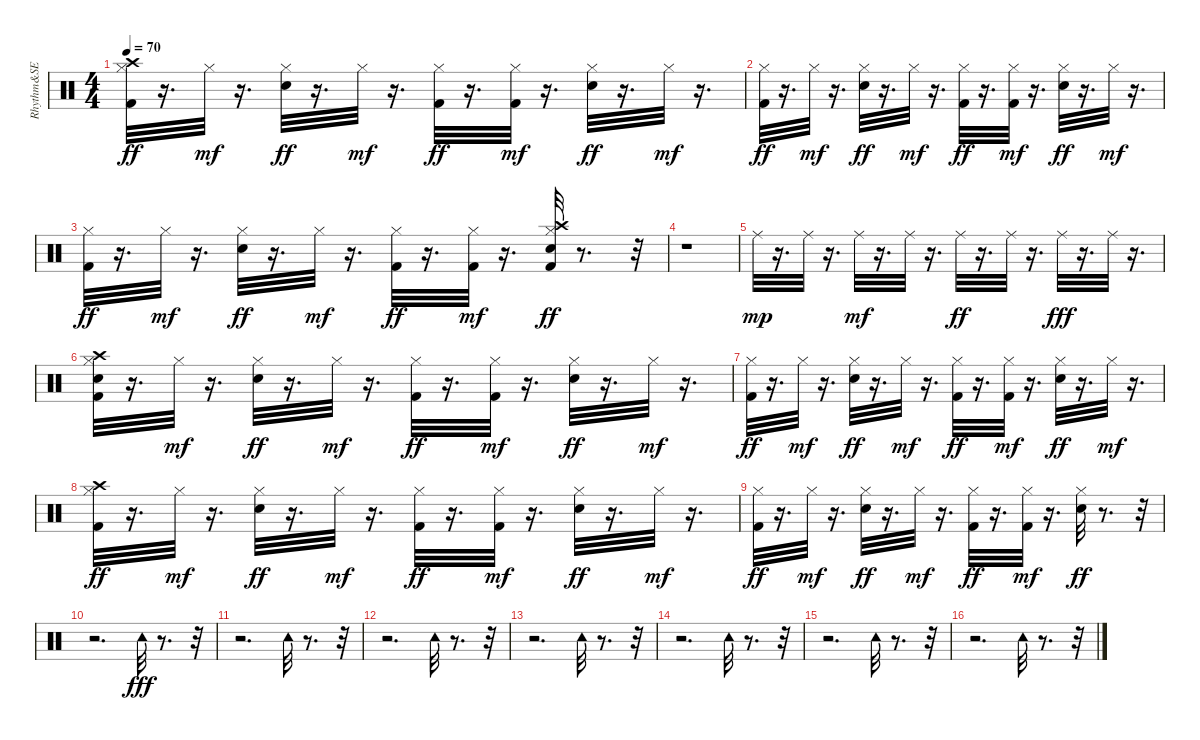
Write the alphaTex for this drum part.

\track ("Rhythm&SE" "Rhythm&SE") {instrument percussion}
\staff {score}
\articulation defaults
\ts (4 4)
\tempo 70
\clef neutral
\ks c
("Kick (hit) 2" "Hi-Hat (closed)" "Crash high (hit)").32{dy ff volume 13} r.16{d} "Hi-Hat (closed)".32{dy mf volume 13} r.16{d} ("Snare (hit) 2" "Hi-Hat (closed)").32{dy ff} r.16{d} "Hi-Hat (closed)".32{dy mf} r.16{d} ("Kick (hit) 2" "Hi-Hat (closed)").32{dy ff} r.16{d} ("Kick (hit) 2" "Hi-Hat (closed)").32{dy mf} r.16{d} ("Snare (hit) 2" "Hi-Hat (closed)").32{dy ff} r.16{d} "Hi-Hat (closed)".32{dy mf} r.16{d} |
("Kick (hit) 2" "Hi-Hat (closed)").32{dy ff} r.16{d} "Hi-Hat (closed)".32{dy mf} r.16{d} ("Snare (hit) 2" "Hi-Hat (closed)").32{dy ff} r.16{d} "Hi-Hat (closed)".32{dy mf} r.16{d} ("Kick (hit) 2" "Hi-Hat (closed)").32{dy ff} r.16{d} ("Kick (hit) 2" "Hi-Hat (closed)").32{dy mf} r.16{d} ("Snare (hit) 2" "Hi-Hat (closed)").32{dy ff} r.16{d} "Hi-Hat (closed)".32{dy mf} r.16{d} |
("Kick (hit) 2" "Hi-Hat (closed)").32{dy ff} r.16{d} "Hi-Hat (closed)".32{dy mf} r.16{d} ("Snare (hit) 2" "Hi-Hat (closed)").32{dy ff} r.16{d} "Hi-Hat (closed)".32{dy mf} r.16{d} ("Kick (hit) 2" "Hi-Hat (closed)").32{dy ff} r.16{d} ("Kick (hit) 2" "Hi-Hat (closed)").32{dy mf} r.16{d} ("Snare (hit) 2" "Hi-Hat (closed)" "Kick (hit) 2" "Crash high (hit)").32{dy ff} r.8{d} r.32 |
r.1 |
"Ride (middle)".32{dy mp} r.16{d} "Ride (middle)".32 r.16{d} "Ride (middle)".32{dy mf} r.16{d} "Ride (middle)".32 r.16{d} "Ride (middle)".32{dy ff} r.16{d} "Ride (middle)".32 r.16{d} "Ride (middle)".32{dy fff} r.16{d} "Ride (middle)".32 r.16{d} |
("Kick (hit) 2" "Hi-Hat (closed)" "Snare (hit) 2" "Crash high (hit)").32{volume 14} r.16{d} "Hi-Hat (closed)".32{dy mf volume 14} r.16{d} ("Snare (hit) 2" "Hi-Hat (closed)").32{dy ff} r.16{d} "Hi-Hat (closed)".32{dy mf} r.16{d} ("Kick (hit) 2" "Hi-Hat (closed)").32{dy ff} r.16{d} ("Kick (hit) 2" "Hi-Hat (closed)").32{dy mf} r.16{d} ("Snare (hit) 2" "Hi-Hat (closed)").32{dy ff} r.16{d} "Hi-Hat (closed)".32{dy mf} r.16{d} |
("Kick (hit) 2" "Hi-Hat (closed)").32{dy ff} r.16{d} "Hi-Hat (closed)".32{dy mf} r.16{d} ("Snare (hit) 2" "Hi-Hat (closed)").32{dy ff} r.16{d} "Hi-Hat (closed)".32{dy mf} r.16{d} ("Kick (hit) 2" "Hi-Hat (closed)").32{dy ff} r.16{d} ("Kick (hit) 2" "Hi-Hat (closed)").32{dy mf} r.16{d} ("Snare (hit) 2" "Hi-Hat (closed)").32{dy ff} r.16{d} "Hi-Hat (closed)".32{dy mf} r.16{d} |
("Kick (hit) 2" "Hi-Hat (closed)" "Crash high (hit)").32{dy ff} r.16{d} "Hi-Hat (closed)".32{dy mf} r.16{d} ("Snare (hit) 2" "Hi-Hat (closed)").32{dy ff} r.16{d} "Hi-Hat (closed)".32{dy mf} r.16{d} ("Kick (hit) 2" "Hi-Hat (closed)").32{dy ff} r.16{d} ("Kick (hit) 2" "Hi-Hat (closed)").32{dy mf} r.16{d} ("Snare (hit) 2" "Hi-Hat (closed)").32{dy ff} r.16{d} "Hi-Hat (closed)".32{dy mf} r.16{d} |
("Kick (hit) 2" "Hi-Hat (closed)").32{dy ff} r.16{d} "Hi-Hat (closed)".32{dy mf} r.16{d} ("Snare (hit) 2" "Hi-Hat (closed)").32{dy ff} r.16{d} "Hi-Hat (closed)".32{dy mf} r.16{d} ("Kick (hit) 2" "Hi-Hat (closed)").32{dy ff} r.16{d} ("Kick (hit) 2" "Hi-Hat (closed)").32{dy mf} r.16{d} ("Snare (hit) 2" "Hi-Hat (closed)").32{dy ff} r.8{d} r.32 |
r.2{d} "Tambourine (hit)".32{dy fff volume 12 balance 8} r.8{d} r.32 |
r.2{d} "Tambourine (hit)".32 r.8{d} r.32 |
r.2{d} "Tambourine (hit)".32 r.8{d} r.32 |
r.2{d} "Tambourine (hit)".32 r.8{d} r.32 |
r.2{d} "Tambourine (hit)".32 r.8{d} r.32 |
r.2{d} "Tambourine (hit)".32 r.8{d} r.32 |
r.2{d} "Tambourine (hit)".32 r.8{d} r.32
